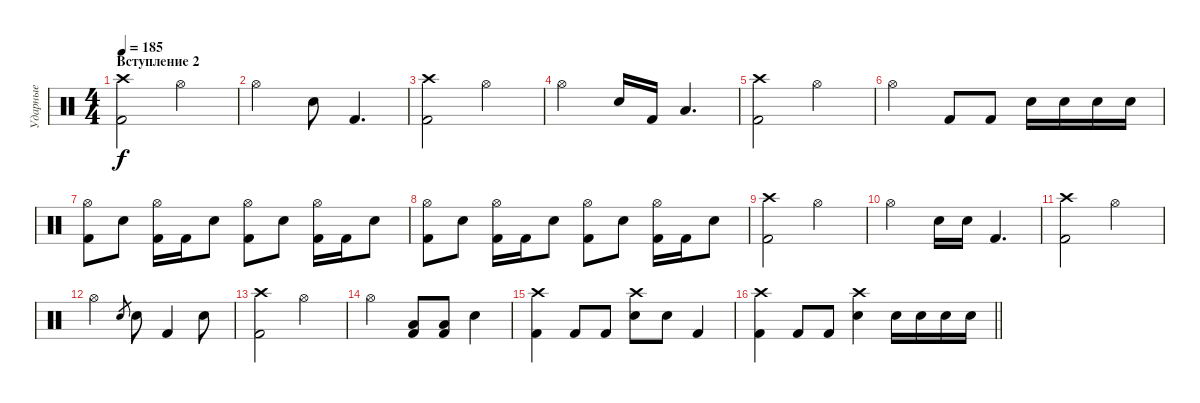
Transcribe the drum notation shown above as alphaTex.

\track ("Ударные" "Ударные") {instrument percussion}
\staff {score}
\articulation defaults
\ts (4 4)
\section ("" "Вступление 2")
\tempo 185
\clef neutral
\ks c
("Crash high (hit)" "Kick (hit) 2").2{dy f} "Hi-Hat (open)".2 |
"Hi-Hat (open)".2 "Electric Snare (hit)".8 "Kick (hit) 2".4{d} |
("Crash high (hit)" "Kick (hit) 2").2 "Hi-Hat (open)".2 |
"Hi-Hat (open)".2 "Electric Snare (hit)".16 "Kick (hit) 2".16 "Low Floor Tom (hit)".4{d} |
("Crash high (hit)" "Kick (hit) 2").2 "Hi-Hat (open)".2 |
"Hi-Hat (open)".2 "Kick (hit) 2".8 "Kick (hit) 2".8 "Electric Snare (hit)".16 "Electric Snare (hit)".16 "Electric Snare (hit)".16 "Electric Snare (hit)".16 |
("Hi-Hat (open)" "Kick (hit) 2").8 "Electric Snare (hit)".8 ("Hi-Hat (open)" "Kick (hit) 2").16 "Kick (hit) 2".16 "Electric Snare (hit)".8 ("Hi-Hat (open)" "Kick (hit) 2").8 "Electric Snare (hit)".8 ("Hi-Hat (open)" "Kick (hit) 2").16 "Kick (hit) 2".16 "Electric Snare (hit)".8 |
("Hi-Hat (open)" "Kick (hit) 2").8 "Electric Snare (hit)".8 ("Hi-Hat (open)" "Kick (hit) 2").16 "Kick (hit) 2".16 "Electric Snare (hit)".8 ("Hi-Hat (open)" "Kick (hit) 2").8 "Electric Snare (hit)".8 ("Hi-Hat (open)" "Kick (hit) 2").16 "Kick (hit) 2".16 "Electric Snare (hit)".8 |
("Crash high (hit)" "Kick (hit) 2").2 "Hi-Hat (open)".2 |
"Hi-Hat (open)".2 "Electric Snare (hit)".16 "Electric Snare (hit)".16 "Kick (hit) 2".4{d} |
("Crash high (hit)" "Kick (hit) 2").2 "Hi-Hat (open)".2 |
"Hi-Hat (open)".2 "Electric Snare (hit)".8{gr} "Electric Snare (hit)".8 "Kick (hit) 2".4 "Electric Snare (hit)".8 |
("Crash high (hit)" "Kick (hit) 2").2 "Hi-Hat (open)".2 |
"Hi-Hat (open)".2 ("Low Floor Tom (hit)" "Kick (hit) 2").8 ("Low Floor Tom (hit)" "Kick (hit) 2").8 "Electric Snare (hit)".4 |
("Crash high (hit)" "Kick (hit) 2").4 "Kick (hit) 2".8 "Kick (hit) 2".8 ("Crash high (hit)" "Electric Snare (hit)").8 "Electric Snare (hit)".8 "Kick (hit) 2".4 |
\barLineRight lightlight
("Crash high (hit)" "Kick (hit) 2").4 "Kick (hit) 2".8 "Kick (hit) 2".8 ("Crash high (hit)" "Electric Snare (hit)").4 "Electric Snare (hit)".16 "Electric Snare (hit)".16 "Electric Snare (hit)".16 "Electric Snare (hit)".16
